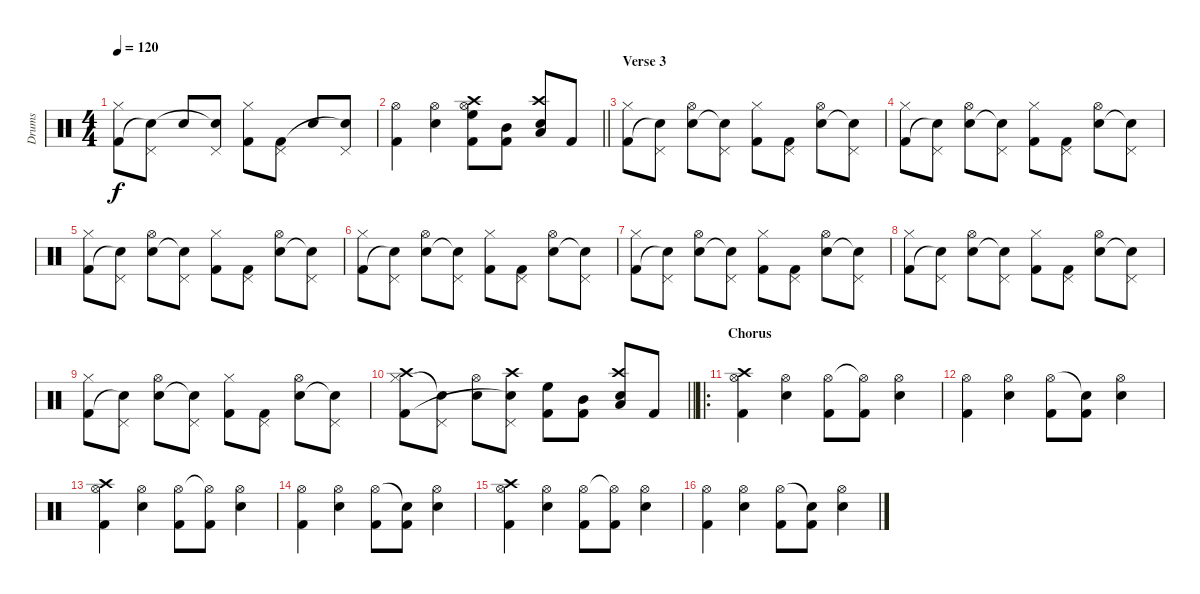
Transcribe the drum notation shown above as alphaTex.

\track ("Drums" "Drums") {instrument percussion}
\staff {score}
\articulation defaults
\ts (4 4)
\tempo 120
\clef neutral
\ks c
("Hi-Hat (closed)" "Kick (hit) 2").8{dy f} ("Pedal Hi-Hat (hit)" "Snare (hit)"{t}).8 "Snare (hit) 2".8 ("Pedal Hi-Hat (hit)" "Snare (hit)"{t}).8 ("Hi-Hat (closed)" "Kick (hit) 2").8 ("Pedal Hi-Hat (hit)" "Kick (hit) 2").8 "Snare (hit) 2".8 ("Pedal Hi-Hat (hit)" "Snare (hit)"{t}).8 |
\barLineRight lightlight
("Hi-Hat (open)" "Kick (hit) 2").4 ("Hi-Hat (open)" "Snare (hit) 2").4 ("Crash high (hit)" "Hi-Hat (open)" "High Floor Tom (hit)" "Kick (hit) 2").8 ("Mid Tom (hit)" "Kick (hit) 2").8 ("Crash high (hit)" "Low Floor Tom (hit)" "Snare (hit) 2").8 "Kick (hit) 2".8 |
\section ("" "Verse 3")
("Hi-Hat (closed)" "Kick (hit) 2").8 ("Pedal Hi-Hat (hit)" "Snare (hit)"{t}).8 ("Hi-Hat (open)" "Snare (hit) 2").8 ("Pedal Hi-Hat (hit)" "Snare (hit)"{t}).8 ("Hi-Hat (closed)" "Kick (hit) 2").8 ("Pedal Hi-Hat (hit)" "Kick (hit) 2").8 ("Hi-Hat (open)" "Snare (hit) 2").8 ("Pedal Hi-Hat (hit)" "Snare (hit)"{t}).8 |
("Hi-Hat (closed)" "Kick (hit) 2").8 ("Pedal Hi-Hat (hit)" "Snare (hit)"{t}).8 ("Hi-Hat (open)" "Snare (hit) 2").8 ("Pedal Hi-Hat (hit)" "Snare (hit)"{t}).8 ("Hi-Hat (closed)" "Kick (hit) 2").8 ("Pedal Hi-Hat (hit)" "Kick (hit) 2").8 ("Hi-Hat (open)" "Snare (hit) 2").8 ("Pedal Hi-Hat (hit)" "Snare (hit)"{t}).8 |
("Hi-Hat (closed)" "Kick (hit) 2").8 ("Pedal Hi-Hat (hit)" "Snare (hit)"{t}).8 ("Hi-Hat (open)" "Snare (hit) 2").8 ("Pedal Hi-Hat (hit)" "Snare (hit)"{t}).8 ("Hi-Hat (closed)" "Kick (hit) 2").8 ("Pedal Hi-Hat (hit)" "Kick (hit) 2").8 ("Hi-Hat (open)" "Snare (hit) 2").8 ("Pedal Hi-Hat (hit)" "Snare (hit)"{t}).8 |
("Hi-Hat (closed)" "Kick (hit) 2").8 ("Pedal Hi-Hat (hit)" "Snare (hit)"{t}).8 ("Hi-Hat (open)" "Snare (hit) 2").8 ("Pedal Hi-Hat (hit)" "Snare (hit)"{t}).8 ("Hi-Hat (closed)" "Kick (hit) 2").8 ("Pedal Hi-Hat (hit)" "Kick (hit) 2").8 ("Hi-Hat (open)" "Snare (hit) 2").8 ("Pedal Hi-Hat (hit)" "Snare (hit)"{t}).8 |
("Hi-Hat (closed)" "Kick (hit) 2").8 ("Pedal Hi-Hat (hit)" "Snare (hit)"{t}).8 ("Hi-Hat (open)" "Snare (hit) 2").8 ("Pedal Hi-Hat (hit)" "Snare (hit)"{t}).8 ("Hi-Hat (closed)" "Kick (hit) 2").8 ("Pedal Hi-Hat (hit)" "Kick (hit) 2").8 ("Hi-Hat (open)" "Snare (hit) 2").8 ("Pedal Hi-Hat (hit)" "Snare (hit)"{t}).8 |
("Hi-Hat (closed)" "Kick (hit) 2").8 ("Pedal Hi-Hat (hit)" "Snare (hit)"{t}).8 ("Hi-Hat (open)" "Snare (hit) 2").8 ("Pedal Hi-Hat (hit)" "Snare (hit)"{t}).8 ("Hi-Hat (closed)" "Kick (hit) 2").8 ("Pedal Hi-Hat (hit)" "Kick (hit) 2").8 ("Hi-Hat (open)" "Snare (hit) 2").8 ("Pedal Hi-Hat (hit)" "Snare (hit)"{t}).8 |
("Hi-Hat (closed)" "Kick (hit) 2").8 ("Pedal Hi-Hat (hit)" "Snare (hit)"{t}).8 ("Hi-Hat (open)" "Snare (hit) 2").8 ("Pedal Hi-Hat (hit)" "Snare (hit)"{t}).8 ("Hi-Hat (closed)" "Kick (hit) 2").8 ("Pedal Hi-Hat (hit)" "Kick (hit) 2").8 ("Hi-Hat (open)" "Snare (hit) 2").8 ("Pedal Hi-Hat (hit)" "Snare (hit)"{t}).8 |
\barLineRight lightlight
("Crash high (hit)" "Hi-Hat (closed)" "Kick (hit) 2").8 ("Pedal Hi-Hat (hit)" "Snare (hit)"{t}).8 ("Hi-Hat (open)" "Snare (hit) 2").8 ("Crash high (hit)" "Pedal Hi-Hat (hit)" "Snare (hit)"{t}).8 ("High Floor Tom (hit)" "Kick (hit) 2").8 ("Mid Tom (hit)" "Kick (hit) 2").8 ("Crash high (hit)" "Low Floor Tom (hit)" "Snare (hit) 2").8 "Kick (hit) 2".8 |
\ro
\section ("" "Chorus")
("Crash high (hit)" "Hi-Hat (open)" "Kick (hit) 2").4 ("Hi-Hat (open)" "Snare (hit) 2").4 ("Hi-Hat (open)" "Kick (hit) 2").8 ("Hi-Hat (open)"{t} "Kick (hit) 2").8 ("Hi-Hat (open)" "Snare (hit) 2").4 |
("Hi-Hat (open)" "Kick (hit) 2").4 ("Hi-Hat (open)" "Snare (hit) 2").4 ("Hi-Hat (open)" "Kick (hit) 2").8 ("Snare (hit)"{t} "Kick (hit) 2").8 ("Hi-Hat (open)" "Snare (hit) 2").4 |
("Crash high (hit)" "Hi-Hat (open)" "Kick (hit) 2").4 ("Hi-Hat (open)" "Snare (hit) 2").4 ("Hi-Hat (open)" "Kick (hit) 2").8 ("Hi-Hat (open)"{t} "Kick (hit) 2").8 ("Hi-Hat (open)" "Snare (hit) 2").4 |
("Hi-Hat (open)" "Kick (hit) 2").4 ("Hi-Hat (open)" "Snare (hit) 2").4 ("Hi-Hat (open)" "Kick (hit) 2").8 ("Snare (hit)"{t} "Kick (hit) 2").8 ("Hi-Hat (open)" "Snare (hit) 2").4 |
("Crash high (hit)" "Hi-Hat (open)" "Kick (hit) 2").4 ("Hi-Hat (open)" "Snare (hit) 2").4 ("Hi-Hat (open)" "Kick (hit) 2").8 ("Hi-Hat (open)"{t} "Kick (hit) 2").8 ("Hi-Hat (open)" "Snare (hit) 2").4 |
("Hi-Hat (open)" "Kick (hit) 2").4 ("Hi-Hat (open)" "Snare (hit) 2").4 ("Hi-Hat (open)" "Kick (hit) 2").8 ("Snare (hit)"{t} "Kick (hit) 2").8 ("Hi-Hat (open)" "Snare (hit) 2").4
